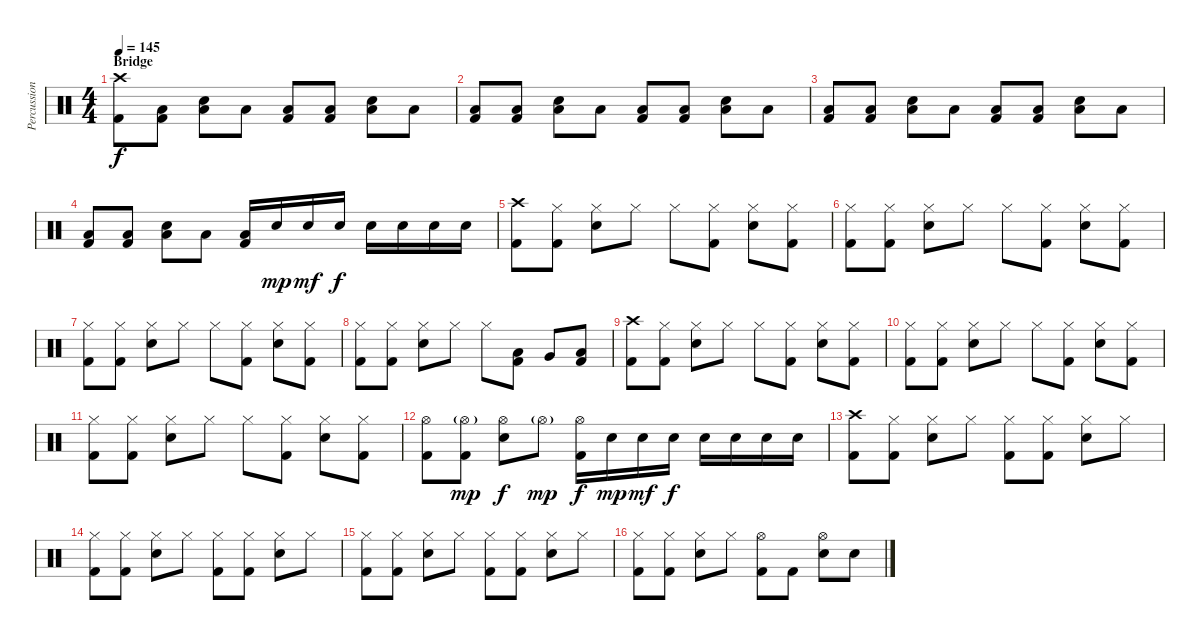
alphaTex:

\track ("Percussion" "Percussion") {instrument percussion}
\staff {score}
\articulation defaults
\ts (4 4)
\section ("" "Bridge")
\tempo 145
\clef neutral
\ks c
("Crash high (hit)" "Kick (hit) 2").8{dy f} ("Low Floor Tom (hit)" "Kick (hit) 2").8 ("Low Floor Tom (hit)" "Electric Snare (hit)").8 "Low Floor Tom (hit)".8 ("Low Floor Tom (hit)" "Kick (hit) 2").8 ("Low Floor Tom (hit)" "Kick (hit) 2").8 ("Low Floor Tom (hit)" "Electric Snare (hit)").8 "Low Floor Tom (hit)".8 |
("Low Floor Tom (hit)" "Kick (hit) 2").8 ("Low Floor Tom (hit)" "Kick (hit) 2").8 ("Low Floor Tom (hit)" "Electric Snare (hit)").8 "Low Floor Tom (hit)".8 ("Low Floor Tom (hit)" "Kick (hit) 2").8 ("Low Floor Tom (hit)" "Kick (hit) 2").8 ("Low Floor Tom (hit)" "Electric Snare (hit)").8 "Low Floor Tom (hit)".8 |
("Low Floor Tom (hit)" "Kick (hit) 2").8 ("Low Floor Tom (hit)" "Kick (hit) 2").8 ("Low Floor Tom (hit)" "Electric Snare (hit)").8 "Low Floor Tom (hit)".8 ("Low Floor Tom (hit)" "Kick (hit) 2").8 ("Low Floor Tom (hit)" "Kick (hit) 2").8 ("Low Floor Tom (hit)" "Electric Snare (hit)").8 "Low Floor Tom (hit)".8 |
("Low Floor Tom (hit)" "Kick (hit) 2").8 ("Low Floor Tom (hit)" "Kick (hit) 2").8 ("Low Floor Tom (hit)" "Electric Snare (hit)").8 "Low Floor Tom (hit)".8 ("Low Floor Tom (hit)" "Kick (hit) 2").16 "Electric Snare (hit)".16{dy mp} "Electric Snare (hit)".16{dy mf} "Electric Snare (hit)".16{dy f} "Electric Snare (hit)".16 "Electric Snare (hit)".16 "Electric Snare (hit)".16 "Electric Snare (hit)".16 |
("Crash high (hit)" "Kick (hit) 2").8 ("Hi-Hat (closed)" "Kick (hit) 2").8 ("Hi-Hat (closed)" "Electric Snare (hit)").8 "Hi-Hat (closed)".8 "Hi-Hat (closed)".8 ("Hi-Hat (closed)" "Kick (hit) 2").8 ("Hi-Hat (closed)" "Electric Snare (hit)").8 ("Hi-Hat (closed)" "Kick (hit) 2").8 |
("Hi-Hat (closed)" "Kick (hit) 2").8 ("Hi-Hat (closed)" "Kick (hit) 2").8 ("Hi-Hat (closed)" "Electric Snare (hit)").8 "Hi-Hat (closed)".8 "Hi-Hat (closed)".8 ("Hi-Hat (closed)" "Kick (hit) 2").8 ("Hi-Hat (closed)" "Electric Snare (hit)").8 ("Hi-Hat (closed)" "Kick (hit) 2").8 |
("Hi-Hat (closed)" "Kick (hit) 2").8 ("Hi-Hat (closed)" "Kick (hit) 2").8 ("Hi-Hat (closed)" "Electric Snare (hit)").8 "Hi-Hat (closed)".8 "Hi-Hat (closed)".8 ("Hi-Hat (closed)" "Kick (hit) 2").8 ("Hi-Hat (closed)" "Electric Snare (hit)").8 ("Hi-Hat (closed)" "Kick (hit) 2").8 |
("Hi-Hat (closed)" "Kick (hit) 2").8 ("Hi-Hat (closed)" "Kick (hit) 2").8 ("Hi-Hat (closed)" "Electric Snare (hit)").8 "Hi-Hat (closed)".8 "Hi-Hat (closed)".8 ("Low Tom (hit)" "Kick (hit) 2").8 "Very Low Tom (hit)".8 ("Low Floor Tom (hit)" "Kick (hit) 2").8 |
("Crash high (hit)" "Kick (hit) 2").8 ("Hi-Hat (closed)" "Kick (hit) 2").8 ("Hi-Hat (closed)" "Electric Snare (hit)").8 "Hi-Hat (closed)".8 "Hi-Hat (closed)".8 ("Hi-Hat (closed)" "Kick (hit) 2").8 ("Hi-Hat (closed)" "Electric Snare (hit)").8 ("Hi-Hat (closed)" "Kick (hit) 2").8 |
("Hi-Hat (closed)" "Kick (hit) 2").8 ("Hi-Hat (closed)" "Kick (hit) 2").8 ("Hi-Hat (closed)" "Electric Snare (hit)").8 "Hi-Hat (closed)".8 "Hi-Hat (closed)".8 ("Hi-Hat (closed)" "Kick (hit) 2").8 ("Hi-Hat (closed)" "Electric Snare (hit)").8 ("Hi-Hat (closed)" "Kick (hit) 2").8 |
("Hi-Hat (closed)" "Kick (hit) 2").8 ("Hi-Hat (closed)" "Kick (hit) 2").8 ("Hi-Hat (closed)" "Electric Snare (hit)").8 "Hi-Hat (closed)".8 "Hi-Hat (closed)".8 ("Hi-Hat (closed)" "Kick (hit) 2").8 ("Hi-Hat (closed)" "Electric Snare (hit)").8 ("Hi-Hat (closed)" "Kick (hit) 2").8 |
("Hi-Hat (open)" "Kick (hit) 2").8 ("Hi-Hat (open)"{g} "Kick (hit) 2").8{dy mp} ("Hi-Hat (open)" "Electric Snare (hit)").8{dy f} "Hi-Hat (open)"{g}.8{dy mp} ("Hi-Hat (open)" "Kick (hit) 2").16{dy f} "Electric Snare (hit)".16{dy mp} "Electric Snare (hit)".16{dy mf} "Electric Snare (hit)".16{dy f} "Electric Snare (hit)".16 "Electric Snare (hit)".16 "Electric Snare (hit)".16 "Electric Snare (hit)".16 |
("Crash high (hit)" "Kick (hit) 2").8 ("Hi-Hat (closed)" "Kick (hit) 2").8 ("Hi-Hat (closed)" "Electric Snare (hit)").8 "Hi-Hat (closed)".8 ("Hi-Hat (closed)" "Kick (hit) 2").8 ("Hi-Hat (closed)" "Kick (hit) 2").8 ("Hi-Hat (closed)" "Electric Snare (hit)").8 "Hi-Hat (closed)".8 |
("Hi-Hat (closed)" "Kick (hit) 2").8 ("Hi-Hat (closed)" "Kick (hit) 2").8 ("Hi-Hat (closed)" "Electric Snare (hit)").8 "Hi-Hat (closed)".8 ("Hi-Hat (closed)" "Kick (hit) 2").8 ("Hi-Hat (closed)" "Kick (hit) 2").8 ("Hi-Hat (closed)" "Electric Snare (hit)").8 "Hi-Hat (closed)".8 |
("Hi-Hat (closed)" "Kick (hit) 2").8 ("Hi-Hat (closed)" "Kick (hit) 2").8 ("Hi-Hat (closed)" "Electric Snare (hit)").8 "Hi-Hat (closed)".8 ("Hi-Hat (closed)" "Kick (hit) 2").8 ("Hi-Hat (closed)" "Kick (hit) 2").8 ("Hi-Hat (closed)" "Electric Snare (hit)").8 "Hi-Hat (closed)".8 |
("Hi-Hat (closed)" "Kick (hit) 2").8 ("Hi-Hat (closed)" "Kick (hit) 2").8 ("Hi-Hat (closed)" "Electric Snare (hit)").8 "Hi-Hat (closed)".8 ("Hi-Hat (open)" "Kick (hit) 2").8 "Kick (hit) 2".8 ("Hi-Hat (open)" "Electric Snare (hit)").8 "Electric Snare (hit)".8
